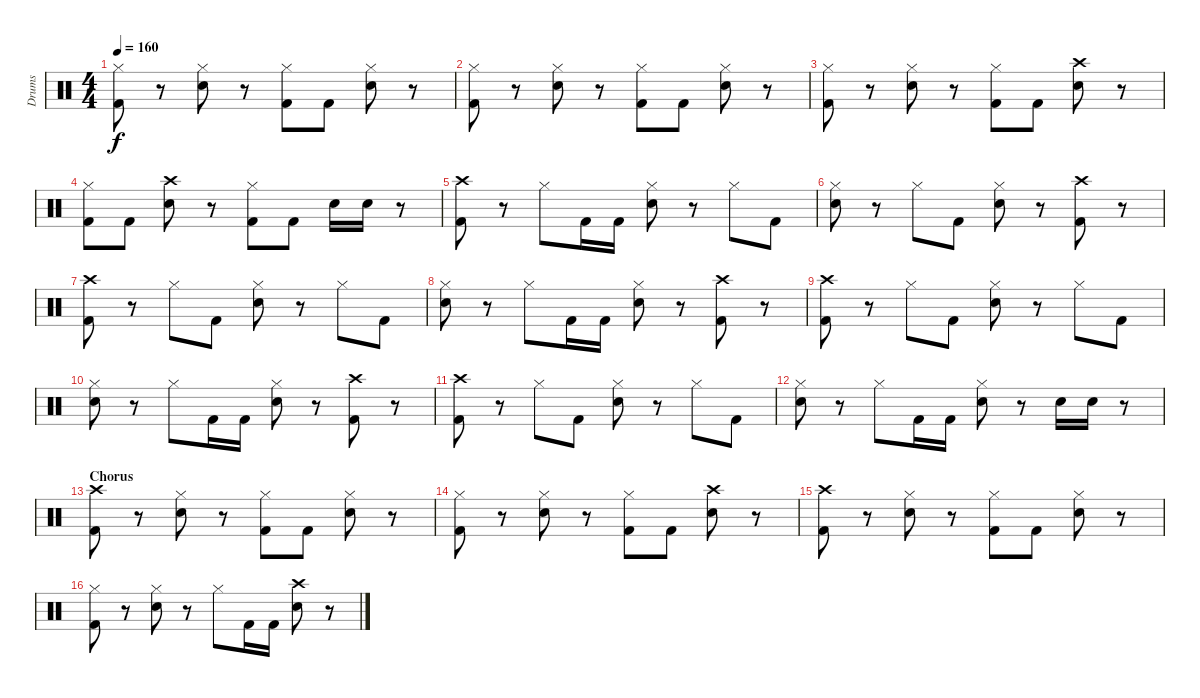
\track ("Drums" "Drums") {instrument percussion}
\staff {score}
\articulation defaults
\ts (4 4)
\tempo 160
\clef neutral
\ks c
("Kick (hit) 2" "Hi-Hat (closed)").8{dy f} r.8 ("Snare (hit) 2" "Hi-Hat (closed)").8 r.8 ("Kick (hit) 2" "Hi-Hat (closed)").8 "Kick (hit) 2".8 ("Snare (hit) 2" "Hi-Hat (closed)").8 r.8 |
("Kick (hit) 2" "Hi-Hat (closed)").8 r.8 ("Snare (hit) 2" "Hi-Hat (closed)").8 r.8 ("Kick (hit) 2" "Hi-Hat (closed)").8 "Kick (hit) 2".8 ("Snare (hit) 2" "Hi-Hat (closed)").8 r.8 |
("Kick (hit) 2" "Hi-Hat (closed)").8 r.8 ("Snare (hit) 2" "Hi-Hat (closed)").8 r.8 ("Kick (hit) 2" "Hi-Hat (closed)").8 "Kick (hit) 2".8 ("Crash high (hit)" "Snare (hit) 2").8 r.8 |
("Kick (hit) 2" "Hi-Hat (closed)").8 "Kick (hit) 2".8 ("Crash high (hit)" "Snare (hit) 2").8 r.8 ("Kick (hit) 2" "Hi-Hat (closed)").8 "Kick (hit) 2".8 "Snare (hit) 2".16 "Snare (hit) 2".16 r.8 |
("Kick (hit) 2" "Crash high (hit)").8 r.8 "Hi-Hat (closed)".8 "Kick (hit) 2".16 "Kick (hit) 2".16 ("Hi-Hat (closed)" "Snare (hit) 2").8 r.8 "Hi-Hat (closed)".8 "Kick (hit) 2".8 |
("Hi-Hat (closed)" "Snare (hit) 2").8 r.8 "Hi-Hat (closed)".8 "Kick (hit) 2".8 ("Snare (hit) 2" "Hi-Hat (closed)").8 r.8 ("Crash high (hit)" "Kick (hit) 2").8 r.8 |
("Kick (hit) 2" "Crash high (hit)").8 r.8 "Hi-Hat (closed)".8 "Kick (hit) 2".8 ("Snare (hit) 2" "Hi-Hat (closed)").8 r.8 "Hi-Hat (closed)".8 "Kick (hit) 2".8 |
("Hi-Hat (closed)" "Snare (hit) 2").8 r.8 "Hi-Hat (closed)".8 "Kick (hit) 2".16 "Kick (hit) 2".16 ("Snare (hit) 2" "Hi-Hat (closed)").8 r.8 ("Crash high (hit)" "Kick (hit) 2").8 r.8 |
("Kick (hit) 2" "Crash high (hit)").8 r.8 "Hi-Hat (closed)".8 "Kick (hit) 2".8 ("Snare (hit) 2" "Hi-Hat (closed)").8 r.8 "Hi-Hat (closed)".8 "Kick (hit) 2".8 |
("Hi-Hat (closed)" "Snare (hit) 2").8 r.8 "Hi-Hat (closed)".8 "Kick (hit) 2".16 "Kick (hit) 2".16 ("Snare (hit) 2" "Hi-Hat (closed)").8 r.8 ("Crash high (hit)" "Kick (hit) 2").8 r.8 |
("Kick (hit) 2" "Crash high (hit)").8 r.8 "Hi-Hat (closed)".8 "Kick (hit) 2".8 ("Snare (hit) 2" "Hi-Hat (closed)").8 r.8 "Hi-Hat (closed)".8 "Kick (hit) 2".8 |
("Hi-Hat (closed)" "Snare (hit) 2").8 r.8 "Hi-Hat (closed)".8 "Kick (hit) 2".16 "Kick (hit) 2".16 ("Snare (hit) 2" "Hi-Hat (closed)").8 r.8 "Snare (hit) 2".16 "Snare (hit) 2".16 r.8 |
\section ("" "Chorus")
("Kick (hit) 2" "Crash high (hit)").8 r.8 ("Hi-Hat (closed)" "Snare (hit) 2").8 r.8 ("Hi-Hat (closed)" "Kick (hit) 2").8 "Kick (hit) 2".8 ("Snare (hit) 2" "Hi-Hat (closed)").8 r.8 |
("Kick (hit) 2" "Hi-Hat (closed)").8 r.8 ("Snare (hit) 2" "Hi-Hat (closed)").8 r.8 ("Kick (hit) 2" "Hi-Hat (closed)").8 "Kick (hit) 2".8 ("Crash high (hit)" "Snare (hit) 2").8 r.8 |
("Kick (hit) 2" "Crash high (hit)").8 r.8 ("Hi-Hat (closed)" "Snare (hit) 2").8 r.8 ("Kick (hit) 2" "Hi-Hat (closed)").8 "Kick (hit) 2".8 ("Hi-Hat (closed)" "Snare (hit) 2").8 r.8 |
("Kick (hit) 2" "Hi-Hat (closed)").8 r.8 ("Snare (hit) 2" "Hi-Hat (closed)").8 r.8 "Hi-Hat (closed)".8 "Kick (hit) 2".16 "Kick (hit) 2".16 ("Crash high (hit)" "Snare (hit) 2").8 r.8
